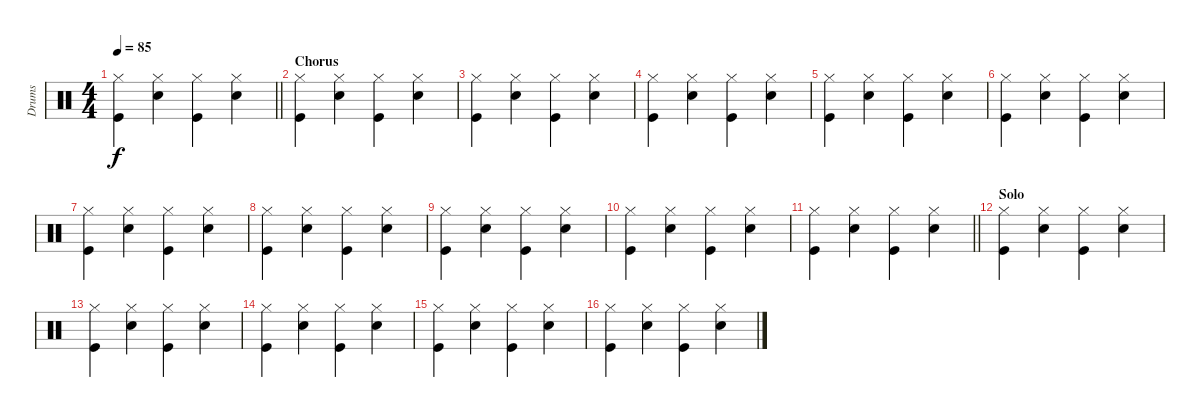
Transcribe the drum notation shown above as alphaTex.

\track ("Drums" "Drums") {instrument percussion}
\staff {score}
\articulation defaults
\ts (4 4)
\tempo 85
\clef neutral
\barLineRight lightlight
\ks c
("Kick (hit)" "Hi-Hat (closed)").4{dy f} ("Snare (hit) 2" "Hi-Hat (closed)").4 ("Kick (hit)" "Hi-Hat (closed)").4 ("Snare (hit) 2" "Hi-Hat (closed)").4 |
\section ("" "Chorus")
("Kick (hit)" "Hi-Hat (closed)").4 ("Snare (hit) 2" "Hi-Hat (closed)").4 ("Kick (hit)" "Hi-Hat (closed)").4 ("Snare (hit) 2" "Hi-Hat (closed)").4 |
("Kick (hit)" "Hi-Hat (closed)").4 ("Snare (hit) 2" "Hi-Hat (closed)").4 ("Kick (hit)" "Hi-Hat (closed)").4 ("Snare (hit) 2" "Hi-Hat (closed)").4 |
("Kick (hit)" "Hi-Hat (closed)").4 ("Snare (hit) 2" "Hi-Hat (closed)").4 ("Kick (hit)" "Hi-Hat (closed)").4 ("Snare (hit) 2" "Hi-Hat (closed)").4 |
("Kick (hit)" "Hi-Hat (closed)").4 ("Snare (hit) 2" "Hi-Hat (closed)").4 ("Kick (hit)" "Hi-Hat (closed)").4 ("Snare (hit) 2" "Hi-Hat (closed)").4 |
("Kick (hit)" "Hi-Hat (closed)").4 ("Snare (hit) 2" "Hi-Hat (closed)").4 ("Kick (hit)" "Hi-Hat (closed)").4 ("Snare (hit) 2" "Hi-Hat (closed)").4 |
("Kick (hit)" "Hi-Hat (closed)").4 ("Snare (hit) 2" "Hi-Hat (closed)").4 ("Kick (hit)" "Hi-Hat (closed)").4 ("Snare (hit) 2" "Hi-Hat (closed)").4 |
("Kick (hit)" "Hi-Hat (closed)").4 ("Snare (hit) 2" "Hi-Hat (closed)").4 ("Kick (hit)" "Hi-Hat (closed)").4 ("Snare (hit) 2" "Hi-Hat (closed)").4 |
("Kick (hit)" "Hi-Hat (closed)").4 ("Snare (hit) 2" "Hi-Hat (closed)").4 ("Kick (hit)" "Hi-Hat (closed)").4 ("Snare (hit) 2" "Hi-Hat (closed)").4 |
("Kick (hit)" "Hi-Hat (closed)").4 ("Snare (hit) 2" "Hi-Hat (closed)").4 ("Kick (hit)" "Hi-Hat (closed)").4 ("Snare (hit) 2" "Hi-Hat (closed)").4 |
\barLineRight lightlight
("Kick (hit)" "Hi-Hat (closed)").4 ("Snare (hit) 2" "Hi-Hat (closed)").4 ("Kick (hit)" "Hi-Hat (closed)").4 ("Snare (hit) 2" "Hi-Hat (closed)").4 |
\section ("" "Solo")
("Kick (hit)" "Hi-Hat (closed)").4 ("Snare (hit) 2" "Hi-Hat (closed)").4 ("Kick (hit)" "Hi-Hat (closed)").4 ("Snare (hit) 2" "Hi-Hat (closed)").4 |
("Kick (hit)" "Hi-Hat (closed)").4 ("Snare (hit) 2" "Hi-Hat (closed)").4 ("Kick (hit)" "Hi-Hat (closed)").4 ("Snare (hit) 2" "Hi-Hat (closed)").4 |
("Kick (hit)" "Hi-Hat (closed)").4 ("Snare (hit) 2" "Hi-Hat (closed)").4 ("Kick (hit)" "Hi-Hat (closed)").4 ("Snare (hit) 2" "Hi-Hat (closed)").4 |
("Kick (hit)" "Hi-Hat (closed)").4 ("Snare (hit) 2" "Hi-Hat (closed)").4 ("Kick (hit)" "Hi-Hat (closed)").4 ("Snare (hit) 2" "Hi-Hat (closed)").4 |
("Kick (hit)" "Hi-Hat (closed)").4 ("Snare (hit) 2" "Hi-Hat (closed)").4 ("Kick (hit)" "Hi-Hat (closed)").4 ("Snare (hit) 2" "Hi-Hat (closed)").4
